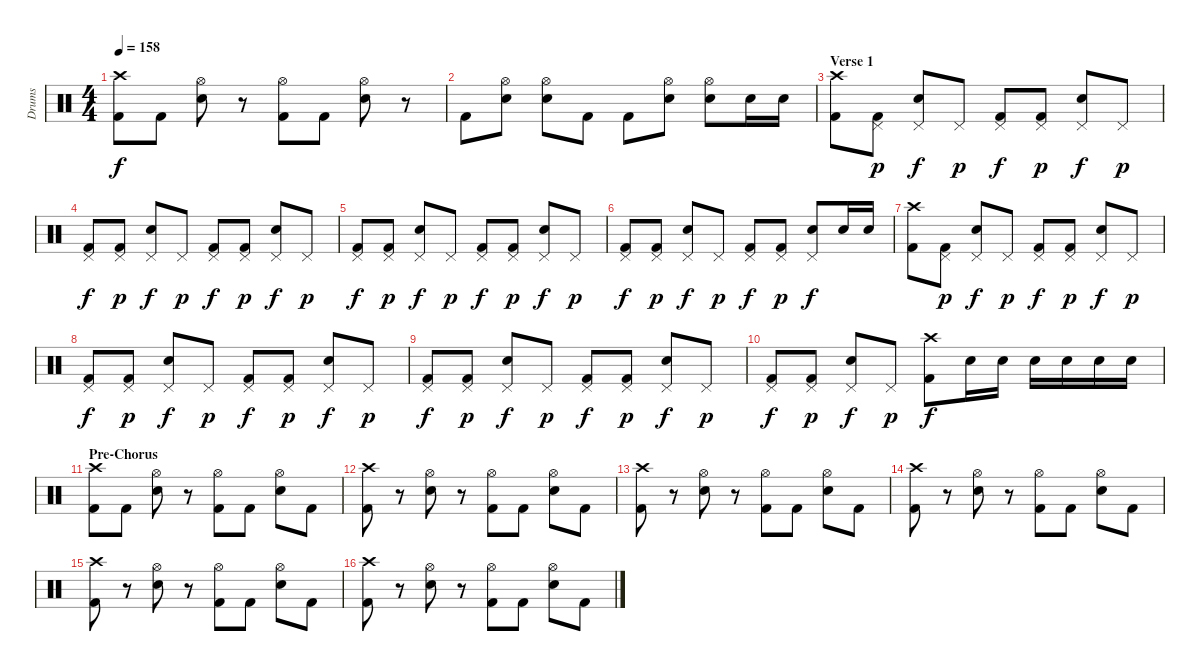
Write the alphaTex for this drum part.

\track ("Drums" "Drums") {instrument percussion}
\staff {score}
\articulation defaults
\ts (4 4)
\tempo 158
\clef neutral
\ks c
("Crash high (hit)" "Kick (hit) 2").8{dy f} "Kick (hit) 2".8 ("Hi-Hat (open)" "Electric Snare (hit)").8 r.8 ("Hi-Hat (open)" "Kick (hit) 2").8 "Kick (hit) 2".8 ("Hi-Hat (open)" "Electric Snare (hit)").8 r.8 |
"Kick (hit) 2".8 ("Hi-Hat (open)" "Electric Snare (hit)").8 ("Hi-Hat (open)" "Electric Snare (hit)").8 "Kick (hit) 2".8 "Kick (hit) 2".8 ("Hi-Hat (open)" "Electric Snare (hit)").8 ("Hi-Hat (open)" "Electric Snare (hit)").8 "Electric Snare (hit)".16 "Electric Snare (hit)".16 |
\section ("" "Verse 1")
("Crash high (hit)" "Kick (hit) 2").8 ("Pedal Hi-Hat (hit)" "Kick (hit) 2").8{dy p} ("Pedal Hi-Hat (hit)" "Electric Snare (hit)").8{dy f} "Pedal Hi-Hat (hit)".8{dy p} ("Pedal Hi-Hat (hit)" "Kick (hit) 2").8{dy f} ("Pedal Hi-Hat (hit)" "Kick (hit) 2").8{dy p} ("Pedal Hi-Hat (hit)" "Electric Snare (hit)").8{dy f} "Pedal Hi-Hat (hit)".8{dy p} |
("Pedal Hi-Hat (hit)" "Kick (hit) 2").8{dy f} ("Pedal Hi-Hat (hit)" "Kick (hit) 2").8{dy p} ("Pedal Hi-Hat (hit)" "Electric Snare (hit)").8{dy f} "Pedal Hi-Hat (hit)".8{dy p} ("Pedal Hi-Hat (hit)" "Kick (hit) 2").8{dy f} ("Pedal Hi-Hat (hit)" "Kick (hit) 2").8{dy p} ("Pedal Hi-Hat (hit)" "Electric Snare (hit)").8{dy f} "Pedal Hi-Hat (hit)".8{dy p} |
("Pedal Hi-Hat (hit)" "Kick (hit) 2").8{dy f} ("Pedal Hi-Hat (hit)" "Kick (hit) 2").8{dy p} ("Pedal Hi-Hat (hit)" "Electric Snare (hit)").8{dy f} "Pedal Hi-Hat (hit)".8{dy p} ("Pedal Hi-Hat (hit)" "Kick (hit) 2").8{dy f} ("Pedal Hi-Hat (hit)" "Kick (hit) 2").8{dy p} ("Pedal Hi-Hat (hit)" "Electric Snare (hit)").8{dy f} "Pedal Hi-Hat (hit)".8{dy p} |
("Pedal Hi-Hat (hit)" "Kick (hit) 2").8{dy f} ("Pedal Hi-Hat (hit)" "Kick (hit) 2").8{dy p} ("Pedal Hi-Hat (hit)" "Electric Snare (hit)").8{dy f} "Pedal Hi-Hat (hit)".8{dy p} ("Pedal Hi-Hat (hit)" "Kick (hit) 2").8{dy f} ("Pedal Hi-Hat (hit)" "Kick (hit) 2").8{dy p} ("Pedal Hi-Hat (hit)" "Electric Snare (hit)").8{dy f} "Electric Snare (hit)".16 "Electric Snare (hit)".16 |
("Crash high (hit)" "Kick (hit) 2").8 ("Pedal Hi-Hat (hit)" "Kick (hit) 2").8{dy p} ("Pedal Hi-Hat (hit)" "Electric Snare (hit)").8{dy f} "Pedal Hi-Hat (hit)".8{dy p} ("Pedal Hi-Hat (hit)" "Kick (hit) 2").8{dy f} ("Pedal Hi-Hat (hit)" "Kick (hit) 2").8{dy p} ("Pedal Hi-Hat (hit)" "Electric Snare (hit)").8{dy f} "Pedal Hi-Hat (hit)".8{dy p} |
("Pedal Hi-Hat (hit)" "Kick (hit) 2").8{dy f} ("Pedal Hi-Hat (hit)" "Kick (hit) 2").8{dy p} ("Pedal Hi-Hat (hit)" "Electric Snare (hit)").8{dy f} "Pedal Hi-Hat (hit)".8{dy p} ("Pedal Hi-Hat (hit)" "Kick (hit) 2").8{dy f} ("Pedal Hi-Hat (hit)" "Kick (hit) 2").8{dy p} ("Pedal Hi-Hat (hit)" "Electric Snare (hit)").8{dy f} "Pedal Hi-Hat (hit)".8{dy p} |
("Pedal Hi-Hat (hit)" "Kick (hit) 2").8{dy f} ("Pedal Hi-Hat (hit)" "Kick (hit) 2").8{dy p} ("Pedal Hi-Hat (hit)" "Electric Snare (hit)").8{dy f} "Pedal Hi-Hat (hit)".8{dy p} ("Pedal Hi-Hat (hit)" "Kick (hit) 2").8{dy f} ("Pedal Hi-Hat (hit)" "Kick (hit) 2").8{dy p} ("Pedal Hi-Hat (hit)" "Electric Snare (hit)").8{dy f} "Pedal Hi-Hat (hit)".8{dy p} |
("Pedal Hi-Hat (hit)" "Kick (hit) 2").8{dy f} ("Pedal Hi-Hat (hit)" "Kick (hit) 2").8{dy p} ("Pedal Hi-Hat (hit)" "Electric Snare (hit)").8{dy f} "Pedal Hi-Hat (hit)".8{dy p} ("Crash high (hit)" "Kick (hit) 2").8{dy f} "Electric Snare (hit)".16 "Electric Snare (hit)".16 "Electric Snare (hit)".16 "Electric Snare (hit)".16 "Electric Snare (hit)".16 "Electric Snare (hit)".16 |
\section ("" "Pre-Chorus")
("Crash high (hit)" "Kick (hit) 2").8 "Kick (hit) 2".8 ("Hi-Hat (open)" "Electric Snare (hit)").8 r.8 ("Hi-Hat (open)" "Kick (hit) 2").8 "Kick (hit) 2".8 ("Hi-Hat (open)" "Electric Snare (hit)").8 "Kick (hit) 2".8 |
("Crash high (hit)" "Kick (hit) 2").8 r.8 ("Hi-Hat (open)" "Electric Snare (hit)").8 r.8 ("Hi-Hat (open)" "Kick (hit) 2").8 "Kick (hit) 2".8 ("Hi-Hat (open)" "Electric Snare (hit)").8 "Kick (hit) 2".8 |
("Crash high (hit)" "Kick (hit) 2").8 r.8 ("Hi-Hat (open)" "Electric Snare (hit)").8 r.8 ("Hi-Hat (open)" "Kick (hit) 2").8 "Kick (hit) 2".8 ("Hi-Hat (open)" "Electric Snare (hit)").8 "Kick (hit) 2".8 |
("Crash high (hit)" "Kick (hit) 2").8 r.8 ("Hi-Hat (open)" "Electric Snare (hit)").8 r.8 ("Hi-Hat (open)" "Kick (hit) 2").8 "Kick (hit) 2".8 ("Hi-Hat (open)" "Electric Snare (hit)").8 "Kick (hit) 2".8 |
("Crash high (hit)" "Kick (hit) 2").8 r.8 ("Hi-Hat (open)" "Electric Snare (hit)").8 r.8 ("Hi-Hat (open)" "Kick (hit) 2").8 "Kick (hit) 2".8 ("Hi-Hat (open)" "Electric Snare (hit)").8 "Kick (hit) 2".8 |
("Crash high (hit)" "Kick (hit) 2").8 r.8 ("Hi-Hat (open)" "Electric Snare (hit)").8 r.8 ("Hi-Hat (open)" "Kick (hit) 2").8 "Kick (hit) 2".8 ("Hi-Hat (open)" "Electric Snare (hit)").8 "Kick (hit) 2".8
